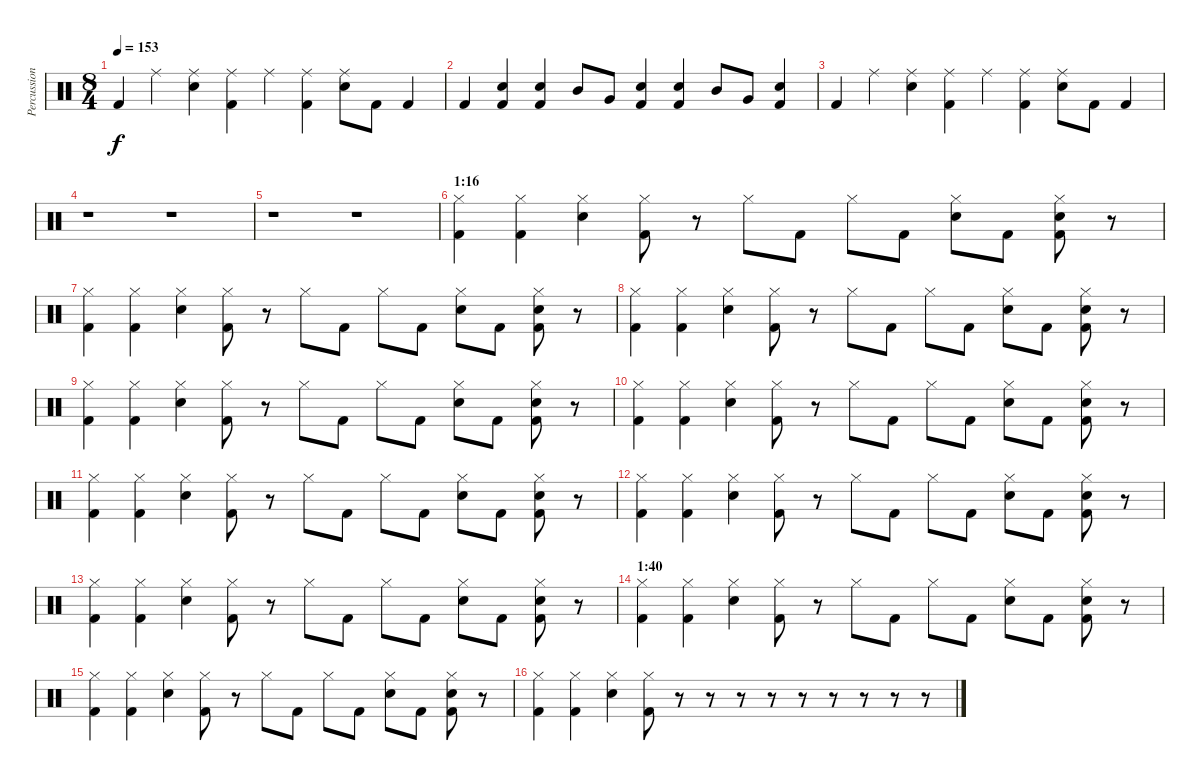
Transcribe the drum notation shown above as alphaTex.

\track ("Percussion" "Percussion") {instrument percussion}
\staff {score}
\articulation defaults
\ts (8 4)
\tempo 153
\clef neutral
\ks c "Kick (hit) 2".4{dy f} "Ride (middle)".4
("Ride (middle)" "Snare (hit) 2").4 ("Ride (middle)" "Kick (hit) 2").4 "Ride (middle)".4 ("Ride (middle)" "Kick (hit) 2").4 ("Ride (middle)" "Snare (hit) 2").8 "Kick (hit) 2".8 "Kick (hit) 2".4 |
"Kick (hit) 2".4 ("Snare (hit) 2" "Kick (hit) 2").4 ("Snare (hit) 2" "Kick (hit) 2").4 "Mid Tom (hit)".8 "Very Low Tom (hit)".8 ("Snare (hit) 2" "Kick (hit) 2").4 ("Snare (hit) 2" "Kick (hit) 2").4 "Mid Tom (hit)".8 "Very Low Tom (hit)".8 ("Snare (hit) 2" "Kick (hit) 2").4 |
"Kick (hit) 2".4 "Ride (middle)".4 ("Ride (middle)" "Snare (hit) 2").4 ("Ride (middle)" "Kick (hit) 2").4 "Ride (middle)".4 ("Ride (middle)" "Kick (hit) 2").4 ("Ride (middle)" "Snare (hit) 2").8 "Kick (hit) 2".8 "Kick (hit) 2".4 |
r.1 r.1 |
r.1 r.1 |
\section ("" "1:16")
("Hi-Hat (closed)" "Kick (hit) 2").4 ("Hi-Hat (closed)" "Kick (hit) 2").4 ("Hi-Hat (closed)" "Snare (hit) 2").4 ("Hi-Hat (closed)" "Kick (hit) 2").8 r.8 "Hi-Hat (closed)".8 "Kick (hit) 2".8 "Hi-Hat (closed)".8 "Kick (hit) 2".8 ("Hi-Hat (closed)" "Snare (hit) 2").8 "Kick (hit) 2".8 ("Hi-Hat (closed)" "Snare (hit) 2" "Kick (hit) 2").8 r.8 |
("Hi-Hat (closed)" "Kick (hit) 2").4 ("Hi-Hat (closed)" "Kick (hit) 2").4 ("Hi-Hat (closed)" "Snare (hit) 2").4 ("Hi-Hat (closed)" "Kick (hit) 2").8 r.8 "Hi-Hat (closed)".8 "Kick (hit) 2".8 "Hi-Hat (closed)".8 "Kick (hit) 2".8 ("Hi-Hat (closed)" "Snare (hit) 2").8 "Kick (hit) 2".8 ("Hi-Hat (closed)" "Snare (hit) 2" "Kick (hit) 2").8 r.8 |
("Hi-Hat (closed)" "Kick (hit) 2").4 ("Hi-Hat (closed)" "Kick (hit) 2").4 ("Hi-Hat (closed)" "Snare (hit) 2").4 ("Hi-Hat (closed)" "Kick (hit) 2").8 r.8 "Hi-Hat (closed)".8 "Kick (hit) 2".8 "Hi-Hat (closed)".8 "Kick (hit) 2".8 ("Hi-Hat (closed)" "Snare (hit) 2").8 "Kick (hit) 2".8 ("Hi-Hat (closed)" "Snare (hit) 2" "Kick (hit) 2").8 r.8 |
("Hi-Hat (closed)" "Kick (hit) 2").4 ("Hi-Hat (closed)" "Kick (hit) 2").4 ("Hi-Hat (closed)" "Snare (hit) 2").4 ("Hi-Hat (closed)" "Kick (hit) 2").8 r.8 "Hi-Hat (closed)".8 "Kick (hit) 2".8 "Hi-Hat (closed)".8 "Kick (hit) 2".8 ("Hi-Hat (closed)" "Snare (hit) 2").8 "Kick (hit) 2".8 ("Hi-Hat (closed)" "Snare (hit) 2" "Kick (hit) 2").8 r.8 |
("Hi-Hat (closed)" "Kick (hit) 2").4 ("Hi-Hat (closed)" "Kick (hit) 2").4 ("Hi-Hat (closed)" "Snare (hit) 2").4 ("Hi-Hat (closed)" "Kick (hit) 2").8 r.8 "Hi-Hat (closed)".8 "Kick (hit) 2".8 "Hi-Hat (closed)".8 "Kick (hit) 2".8 ("Hi-Hat (closed)" "Snare (hit) 2").8 "Kick (hit) 2".8 ("Hi-Hat (closed)" "Snare (hit) 2" "Kick (hit) 2").8 r.8 |
("Hi-Hat (closed)" "Kick (hit) 2").4 ("Hi-Hat (closed)" "Kick (hit) 2").4 ("Hi-Hat (closed)" "Snare (hit) 2").4 ("Hi-Hat (closed)" "Kick (hit) 2").8 r.8 "Hi-Hat (closed)".8 "Kick (hit) 2".8 "Hi-Hat (closed)".8 "Kick (hit) 2".8 ("Hi-Hat (closed)" "Snare (hit) 2").8 "Kick (hit) 2".8 ("Hi-Hat (closed)" "Snare (hit) 2" "Kick (hit) 2").8 r.8 |
("Hi-Hat (closed)" "Kick (hit) 2").4 ("Hi-Hat (closed)" "Kick (hit) 2").4 ("Hi-Hat (closed)" "Snare (hit) 2").4 ("Hi-Hat (closed)" "Kick (hit) 2").8 r.8 "Hi-Hat (closed)".8 "Kick (hit) 2".8 "Hi-Hat (closed)".8 "Kick (hit) 2".8 ("Hi-Hat (closed)" "Snare (hit) 2").8 "Kick (hit) 2".8 ("Hi-Hat (closed)" "Snare (hit) 2" "Kick (hit) 2").8 r.8 |
("Hi-Hat (closed)" "Kick (hit) 2").4 ("Hi-Hat (closed)" "Kick (hit) 2").4 ("Hi-Hat (closed)" "Snare (hit) 2").4 ("Hi-Hat (closed)" "Kick (hit) 2").8 r.8 "Hi-Hat (closed)".8 "Kick (hit) 2".8 "Hi-Hat (closed)".8 "Kick (hit) 2".8 ("Hi-Hat (closed)" "Snare (hit) 2").8 "Kick (hit) 2".8 ("Hi-Hat (closed)" "Snare (hit) 2" "Kick (hit) 2").8 r.8 |
\section ("" "1:40")
("Hi-Hat (closed)" "Kick (hit) 2").4 ("Hi-Hat (closed)" "Kick (hit) 2").4 ("Hi-Hat (closed)" "Snare (hit) 2").4 ("Hi-Hat (closed)" "Kick (hit) 2").8 r.8 "Hi-Hat (closed)".8 "Kick (hit) 2".8 "Hi-Hat (closed)".8 "Kick (hit) 2".8 ("Hi-Hat (closed)" "Snare (hit) 2").8 "Kick (hit) 2".8 ("Hi-Hat (closed)" "Snare (hit) 2" "Kick (hit) 2").8 r.8 |
("Hi-Hat (closed)" "Kick (hit) 2").4 ("Hi-Hat (closed)" "Kick (hit) 2").4 ("Hi-Hat (closed)" "Snare (hit) 2").4 ("Hi-Hat (closed)" "Kick (hit) 2").8 r.8 "Hi-Hat (closed)".8 "Kick (hit) 2".8 "Hi-Hat (closed)".8 "Kick (hit) 2".8 ("Hi-Hat (closed)" "Snare (hit) 2").8 "Kick (hit) 2".8 ("Hi-Hat (closed)" "Snare (hit) 2" "Kick (hit) 2").8 r.8 |
("Hi-Hat (closed)" "Kick (hit) 2").4 ("Hi-Hat (closed)" "Kick (hit) 2").4 ("Hi-Hat (closed)" "Snare (hit) 2").4 ("Hi-Hat (closed)" "Kick (hit) 2").8 r.8 r.8 r.8 r.8 r.8 r.8 r.8 r.8 r.8
